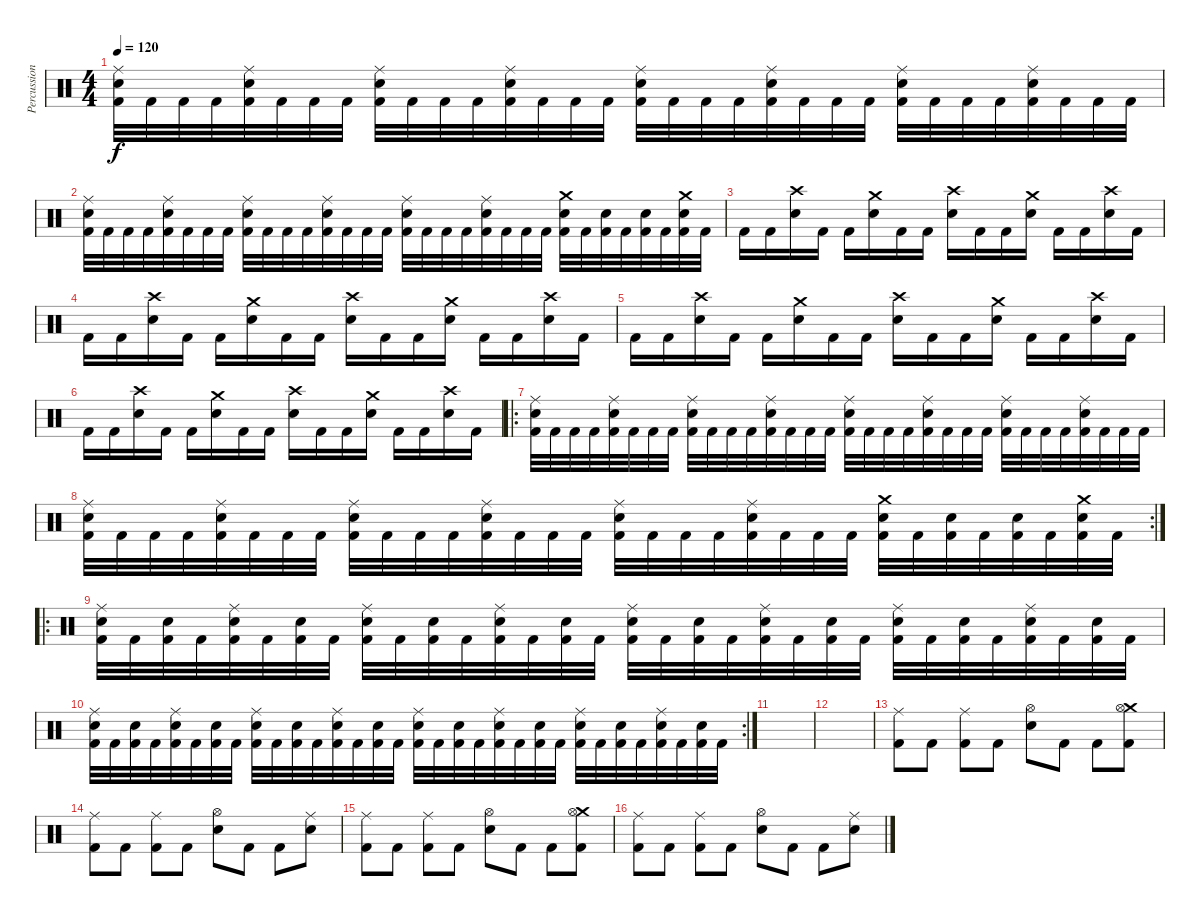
\track ("Percussion" "Percussion") {instrument percussion}
\staff {score}
\articulation defaults
\ts (4 4)
\tempo 120
\clef neutral
\ks c
("Ride (middle)" "Snare (hit) 2" "Kick (hit) 2").32{dy f} "Kick (hit) 2".32 "Kick (hit) 2".32 "Kick (hit) 2".32 ("Ride (middle)" "Snare (hit) 2" "Kick (hit) 2").32 "Kick (hit) 2".32 "Kick (hit) 2".32 "Kick (hit) 2".32 ("Ride (middle)" "Snare (hit) 2" "Kick (hit) 2").32 "Kick (hit) 2".32 "Kick (hit) 2".32 "Kick (hit) 2".32 ("Ride (middle)" "Snare (hit) 2" "Kick (hit) 2").32 "Kick (hit) 2".32 "Kick (hit) 2".32 "Kick (hit) 2".32 ("Ride (middle)" "Snare (hit) 2" "Kick (hit) 2").32 "Kick (hit) 2".32 "Kick (hit) 2".32 "Kick (hit) 2".32 ("Ride (middle)" "Snare (hit) 2" "Kick (hit) 2").32 "Kick (hit) 2".32 "Kick (hit) 2".32 "Kick (hit) 2".32 ("Ride (middle)" "Snare (hit) 2" "Kick (hit) 2").32 "Kick (hit) 2".32 "Kick (hit) 2".32 "Kick (hit) 2".32 ("Ride (middle)" "Snare (hit) 2" "Kick (hit) 2").32 "Kick (hit) 2".32 "Kick (hit) 2".32 "Kick (hit) 2".32 |
("Ride (middle)" "Snare (hit) 2" "Kick (hit) 2").32 "Kick (hit) 2".32 "Kick (hit) 2".32 "Kick (hit) 2".32 ("Ride (middle)" "Snare (hit) 2" "Kick (hit) 2").32 "Kick (hit) 2".32 "Kick (hit) 2".32 "Kick (hit) 2".32 ("Ride (middle)" "Snare (hit) 2" "Kick (hit) 2").32 "Kick (hit) 2".32 "Kick (hit) 2".32 "Kick (hit) 2".32 ("Ride (middle)" "Snare (hit) 2" "Kick (hit) 2").32 "Kick (hit) 2".32 "Kick (hit) 2".32 "Kick (hit) 2".32 ("Ride (middle)" "Snare (hit) 2" "Kick (hit) 2").32 "Kick (hit) 2".32 "Kick (hit) 2".32 "Kick (hit) 2".32 ("Ride (middle)" "Snare (hit) 2" "Kick (hit) 2").32 "Kick (hit) 2".32 "Kick (hit) 2".32 "Kick (hit) 2".32 ("Crash medium (hit)" "Snare (hit) 2" "Kick (hit) 2").32 "Kick (hit) 2".32 ("Snare (hit) 2" "Kick (hit) 2").32 "Kick (hit) 2".32 ("Snare (hit) 2" "Kick (hit) 2").32 "Kick (hit) 2".32 ("Crash medium (hit)" "Snare (hit) 2" "Kick (hit) 2").32 "Kick (hit) 2".32 |
"Kick (hit) 2".16 "Kick (hit) 2".16 ("Crash high (hit)" "Snare (hit) 2").16 "Kick (hit) 2".16 "Kick (hit) 2".16 ("Crash medium (hit)" "Snare (hit) 2").16 "Kick (hit) 2".16 "Kick (hit) 2".16 ("Crash high (hit)" "Snare (hit) 2").16 "Kick (hit) 2".16 "Kick (hit) 2".16 ("Crash medium (hit)" "Snare (hit) 2").16 "Kick (hit) 2".16 "Kick (hit) 2".16 ("Crash high (hit)" "Snare (hit) 2").16 "Kick (hit) 2".16 |
"Kick (hit) 2".16 "Kick (hit) 2".16 ("Crash high (hit)" "Snare (hit) 2").16 "Kick (hit) 2".16 "Kick (hit) 2".16 ("Crash medium (hit)" "Snare (hit) 2").16 "Kick (hit) 2".16 "Kick (hit) 2".16 ("Crash high (hit)" "Snare (hit) 2").16 "Kick (hit) 2".16 "Kick (hit) 2".16 ("Crash medium (hit)" "Snare (hit) 2").16 "Kick (hit) 2".16 "Kick (hit) 2".16 ("Crash high (hit)" "Snare (hit) 2").16 "Kick (hit) 2".16 |
"Kick (hit) 2".16 "Kick (hit) 2".16 ("Crash high (hit)" "Snare (hit) 2").16 "Kick (hit) 2".16 "Kick (hit) 2".16 ("Crash medium (hit)" "Snare (hit) 2").16 "Kick (hit) 2".16 "Kick (hit) 2".16 ("Crash high (hit)" "Snare (hit) 2").16 "Kick (hit) 2".16 "Kick (hit) 2".16 ("Crash medium (hit)" "Snare (hit) 2").16 "Kick (hit) 2".16 "Kick (hit) 2".16 ("Crash high (hit)" "Snare (hit) 2").16 "Kick (hit) 2".16 |
"Kick (hit) 2".16 "Kick (hit) 2".16 ("Crash high (hit)" "Snare (hit) 2").16 "Kick (hit) 2".16 "Kick (hit) 2".16 ("Crash medium (hit)" "Snare (hit) 2").16 "Kick (hit) 2".16 "Kick (hit) 2".16 ("Crash high (hit)" "Snare (hit) 2").16 "Kick (hit) 2".16 "Kick (hit) 2".16 ("Crash medium (hit)" "Snare (hit) 2").16 "Kick (hit) 2".16 "Kick (hit) 2".16 ("Crash high (hit)" "Snare (hit) 2").16 "Kick (hit) 2".16 |
\ro
("Ride (middle)" "Snare (hit) 2" "Kick (hit) 2").32 "Kick (hit) 2".32 "Kick (hit) 2".32 "Kick (hit) 2".32 ("Ride (middle)" "Snare (hit) 2" "Kick (hit) 2").32 "Kick (hit) 2".32 "Kick (hit) 2".32 "Kick (hit) 2".32 ("Ride (middle)" "Snare (hit) 2" "Kick (hit) 2").32 "Kick (hit) 2".32 "Kick (hit) 2".32 "Kick (hit) 2".32 ("Ride (middle)" "Snare (hit) 2" "Kick (hit) 2").32 "Kick (hit) 2".32 "Kick (hit) 2".32 "Kick (hit) 2".32 ("Ride (middle)" "Snare (hit) 2" "Kick (hit) 2").32 "Kick (hit) 2".32 "Kick (hit) 2".32 "Kick (hit) 2".32 ("Ride (middle)" "Snare (hit) 2" "Kick (hit) 2").32 "Kick (hit) 2".32 "Kick (hit) 2".32 "Kick (hit) 2".32 ("Ride (middle)" "Snare (hit) 2" "Kick (hit) 2").32 "Kick (hit) 2".32 "Kick (hit) 2".32 "Kick (hit) 2".32 ("Ride (middle)" "Snare (hit) 2" "Kick (hit) 2").32 "Kick (hit) 2".32 "Kick (hit) 2".32 "Kick (hit) 2".32 |
\rc 2
("Ride (middle)" "Snare (hit) 2" "Kick (hit) 2").32 "Kick (hit) 2".32 "Kick (hit) 2".32 "Kick (hit) 2".32 ("Ride (middle)" "Snare (hit) 2" "Kick (hit) 2").32 "Kick (hit) 2".32 "Kick (hit) 2".32 "Kick (hit) 2".32 ("Ride (middle)" "Snare (hit) 2" "Kick (hit) 2").32 "Kick (hit) 2".32 "Kick (hit) 2".32 "Kick (hit) 2".32 ("Ride (middle)" "Snare (hit) 2" "Kick (hit) 2").32 "Kick (hit) 2".32 "Kick (hit) 2".32 "Kick (hit) 2".32 ("Ride (middle)" "Snare (hit) 2" "Kick (hit) 2").32 "Kick (hit) 2".32 "Kick (hit) 2".32 "Kick (hit) 2".32 ("Ride (middle)" "Snare (hit) 2" "Kick (hit) 2").32 "Kick (hit) 2".32 "Kick (hit) 2".32 "Kick (hit) 2".32 ("Crash medium (hit)" "Snare (hit) 2" "Kick (hit) 2").32 "Kick (hit) 2".32 ("Snare (hit) 2" "Kick (hit) 2").32 "Kick (hit) 2".32 ("Snare (hit) 2" "Kick (hit) 2").32 "Kick (hit) 2".32 ("Crash medium (hit)" "Snare (hit) 2" "Kick (hit) 2").32 "Kick (hit) 2".32 |
\ro
("Ride (middle)" "Snare (hit) 2" "Kick (hit) 2").32 "Kick (hit) 2".32 ("Snare (hit) 2" "Kick (hit) 2").32 "Kick (hit) 2".32 ("Ride (middle)" "Snare (hit) 2" "Kick (hit) 2").32 "Kick (hit) 2".32 ("Snare (hit) 2" "Kick (hit) 2").32 "Kick (hit) 2".32 ("Ride (middle)" "Snare (hit) 2" "Kick (hit) 2").32 "Kick (hit) 2".32 ("Snare (hit) 2" "Kick (hit) 2").32 "Kick (hit) 2".32 ("Ride (middle)" "Snare (hit) 2" "Kick (hit) 2").32 "Kick (hit) 2".32 ("Snare (hit) 2" "Kick (hit) 2").32 "Kick (hit) 2".32 ("Ride (middle)" "Snare (hit) 2" "Kick (hit) 2").32 "Kick (hit) 2".32 ("Snare (hit) 2" "Kick (hit) 2").32 "Kick (hit) 2".32 ("Ride (middle)" "Snare (hit) 2" "Kick (hit) 2").32 "Kick (hit) 2".32 ("Snare (hit) 2" "Kick (hit) 2").32 "Kick (hit) 2".32 ("Ride (middle)" "Snare (hit) 2" "Kick (hit) 2").32 "Kick (hit) 2".32 ("Snare (hit) 2" "Kick (hit) 2").32 "Kick (hit) 2".32 ("Ride (middle)" "Snare (hit) 2" "Kick (hit) 2").32 "Kick (hit) 2".32 ("Snare (hit) 2" "Kick (hit) 2").32 "Kick (hit) 2".32 |
\rc 2
("Ride (middle)" "Snare (hit) 2" "Kick (hit) 2").32 "Kick (hit) 2".32 ("Snare (hit) 2" "Kick (hit) 2").32 "Kick (hit) 2".32 ("Ride (middle)" "Snare (hit) 2" "Kick (hit) 2").32 "Kick (hit) 2".32 ("Snare (hit) 2" "Kick (hit) 2").32 "Kick (hit) 2".32 ("Ride (middle)" "Snare (hit) 2" "Kick (hit) 2").32 "Kick (hit) 2".32 ("Snare (hit) 2" "Kick (hit) 2").32 "Kick (hit) 2".32 ("Ride (middle)" "Snare (hit) 2" "Kick (hit) 2").32 "Kick (hit) 2".32 ("Snare (hit) 2" "Kick (hit) 2").32 "Kick (hit) 2".32 ("Ride (middle)" "Snare (hit) 2" "Kick (hit) 2").32 "Kick (hit) 2".32 ("Snare (hit) 2" "Kick (hit) 2").32 "Kick (hit) 2".32 ("Ride (middle)" "Snare (hit) 2" "Kick (hit) 2").32 "Kick (hit) 2".32 ("Snare (hit) 2" "Kick (hit) 2").32 "Kick (hit) 2".32 ("Ride (middle)" "Snare (hit) 2" "Kick (hit) 2").32 "Kick (hit) 2".32 ("Snare (hit) 2" "Kick (hit) 2").32 "Kick (hit) 2".32 ("Ride (middle)" "Snare (hit) 2" "Kick (hit) 2").32 "Kick (hit) 2".32 ("Snare (hit) 2" "Kick (hit) 2").32 "Kick (hit) 2".32 |
|
|
("Ride (middle)" "Kick (hit) 2").8 "Kick (hit) 2".8 ("Ride (middle)" "Kick (hit) 2").8 "Kick (hit) 2".8 ("Hi-Hat (open)" "Snare (hit) 2").8 "Kick (hit) 2".8 "Kick (hit) 2".8 ("Crash medium (hit)" "Hi-Hat (open)" "Kick (hit) 2").8 |
("Ride (middle)" "Kick (hit) 2").8 "Kick (hit) 2".8 ("Ride (middle)" "Kick (hit) 2").8 "Kick (hit) 2".8 ("Hi-Hat (open)" "Snare (hit) 2").8 "Kick (hit) 2".8 "Kick (hit) 2".8 ("Ride (middle)" "Snare (hit) 2").8 |
("Ride (middle)" "Kick (hit) 2").8 "Kick (hit) 2".8 ("Ride (middle)" "Kick (hit) 2").8 "Kick (hit) 2".8 ("Hi-Hat (open)" "Snare (hit) 2").8 "Kick (hit) 2".8 "Kick (hit) 2".8 ("Crash medium (hit)" "Hi-Hat (open)" "Kick (hit) 2").8 |
("Ride (middle)" "Kick (hit) 2").8 "Kick (hit) 2".8 ("Ride (middle)" "Kick (hit) 2").8 "Kick (hit) 2".8 ("Hi-Hat (open)" "Snare (hit) 2").8 "Kick (hit) 2".8 "Kick (hit) 2".8 ("Ride (middle)" "Snare (hit) 2").8
